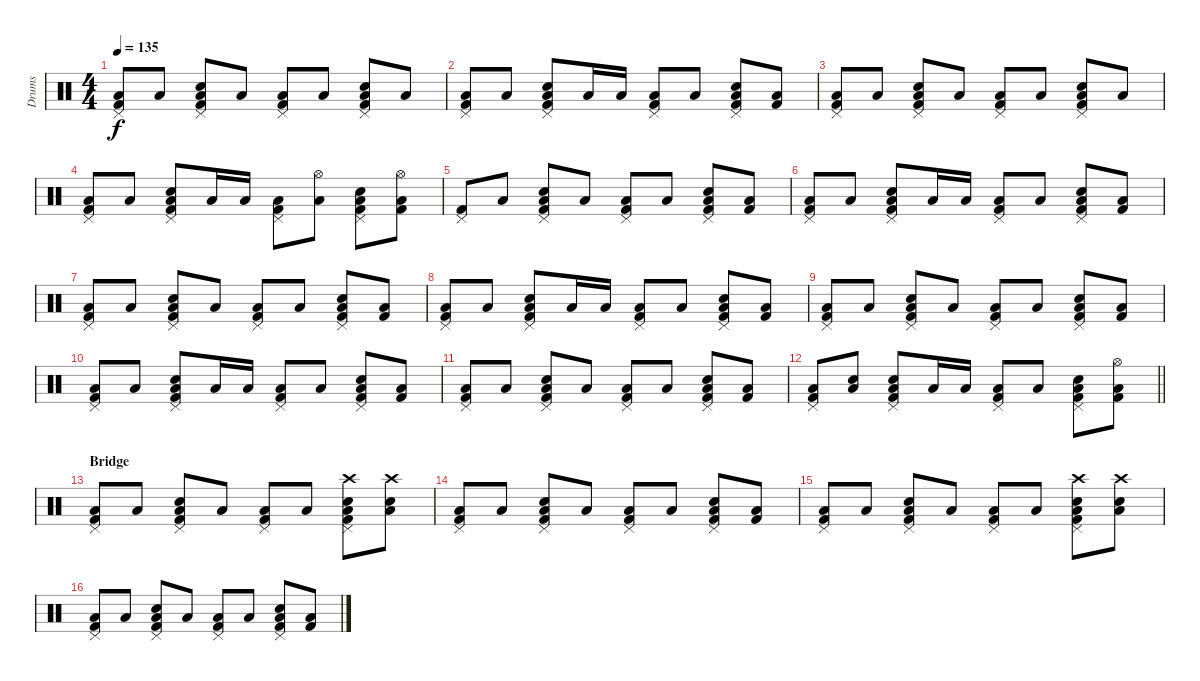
\track ("Drums" "Drums") {instrument percussion}
\staff {score}
\articulation defaults
\ts (4 4)
\tempo 135
\clef neutral
\ks c
("Pedal Hi-Hat (hit)" "Low Floor Tom (hit)" "Kick (hit) 2").8{dy f} "Low Floor Tom (hit)".8 ("Pedal Hi-Hat (hit)" "Low Floor Tom (hit)" "Electric Snare (hit)" "Kick (hit) 2").8 "Low Floor Tom (hit)".8 ("Pedal Hi-Hat (hit)" "Low Floor Tom (hit)" "Kick (hit) 2").8 "Low Floor Tom (hit)".8 ("Pedal Hi-Hat (hit)" "Low Floor Tom (hit)" "Electric Snare (hit)" "Kick (hit) 2").8 "Low Floor Tom (hit)".8 |
("Pedal Hi-Hat (hit)" "Low Floor Tom (hit)" "Kick (hit) 2").8 "Low Floor Tom (hit)".8 ("Pedal Hi-Hat (hit)" "Low Floor Tom (hit)" "Electric Snare (hit)" "Kick (hit) 2").8 "Low Floor Tom (hit)".16 "Low Floor Tom (hit)".16 ("Pedal Hi-Hat (hit)" "Low Floor Tom (hit)" "Kick (hit) 2").8 "Low Floor Tom (hit)".8 ("Pedal Hi-Hat (hit)" "Low Floor Tom (hit)" "Electric Snare (hit)" "Kick (hit) 2").8 ("Low Floor Tom (hit)" "Kick (hit) 2").8 |
("Pedal Hi-Hat (hit)" "Low Floor Tom (hit)" "Kick (hit) 2").8 "Low Floor Tom (hit)".8 ("Pedal Hi-Hat (hit)" "Low Floor Tom (hit)" "Electric Snare (hit)" "Kick (hit) 2").8 "Low Floor Tom (hit)".8 ("Pedal Hi-Hat (hit)" "Low Floor Tom (hit)" "Kick (hit) 2").8 "Low Floor Tom (hit)".8 ("Pedal Hi-Hat (hit)" "Low Floor Tom (hit)" "Electric Snare (hit)" "Kick (hit) 2").8 "Low Floor Tom (hit)".8 |
("Pedal Hi-Hat (hit)" "Low Floor Tom (hit)" "Kick (hit) 2").8 "Low Floor Tom (hit)".8 ("Pedal Hi-Hat (hit)" "Low Floor Tom (hit)" "Electric Snare (hit)" "Kick (hit) 2").8 "Low Floor Tom (hit)".16 "Low Floor Tom (hit)".16 ("Pedal Hi-Hat (hit)" "Low Floor Tom (hit)" "Kick (hit) 2").8 ("Hi-Hat (open)" "Low Floor Tom (hit)").8 ("Pedal Hi-Hat (hit)" "Low Floor Tom (hit)" "Electric Snare (hit)" "Kick (hit) 2").8 ("Hi-Hat (open)" "Low Floor Tom (hit)" "Kick (hit) 2").8 |
("Pedal Hi-Hat (hit)" "Kick (hit) 2").8 "Low Floor Tom (hit)".8 ("Pedal Hi-Hat (hit)" "Low Floor Tom (hit)" "Electric Snare (hit)" "Kick (hit) 2").8 "Low Floor Tom (hit)".8 ("Pedal Hi-Hat (hit)" "Low Floor Tom (hit)" "Kick (hit) 2").8 "Low Floor Tom (hit)".8 ("Pedal Hi-Hat (hit)" "Low Floor Tom (hit)" "Electric Snare (hit)" "Kick (hit) 2").8 ("Low Floor Tom (hit)" "Kick (hit) 2").8 |
("Pedal Hi-Hat (hit)" "Low Floor Tom (hit)" "Kick (hit) 2").8 "Low Floor Tom (hit)".8 ("Pedal Hi-Hat (hit)" "Low Floor Tom (hit)" "Electric Snare (hit)" "Kick (hit) 2").8 "Low Floor Tom (hit)".16 "Low Floor Tom (hit)".16 ("Pedal Hi-Hat (hit)" "Low Floor Tom (hit)" "Kick (hit) 2").8 "Low Floor Tom (hit)".8 ("Pedal Hi-Hat (hit)" "Low Floor Tom (hit)" "Electric Snare (hit)" "Kick (hit) 2").8 ("Low Floor Tom (hit)" "Kick (hit) 2").8 |
("Pedal Hi-Hat (hit)" "Low Floor Tom (hit)" "Kick (hit) 2").8 "Low Floor Tom (hit)".8 ("Pedal Hi-Hat (hit)" "Low Floor Tom (hit)" "Electric Snare (hit)" "Kick (hit) 2").8 "Low Floor Tom (hit)".8 ("Pedal Hi-Hat (hit)" "Low Floor Tom (hit)" "Kick (hit) 2").8 "Low Floor Tom (hit)".8 ("Pedal Hi-Hat (hit)" "Low Floor Tom (hit)" "Electric Snare (hit)" "Kick (hit) 2").8 ("Low Floor Tom (hit)" "Kick (hit) 2").8 |
("Pedal Hi-Hat (hit)" "Low Floor Tom (hit)" "Kick (hit) 2").8 "Low Floor Tom (hit)".8 ("Pedal Hi-Hat (hit)" "Low Floor Tom (hit)" "Electric Snare (hit)" "Kick (hit) 2").8 "Low Floor Tom (hit)".16 "Low Floor Tom (hit)".16 ("Pedal Hi-Hat (hit)" "Low Floor Tom (hit)" "Kick (hit) 2").8 "Low Floor Tom (hit)".8 ("Pedal Hi-Hat (hit)" "Low Floor Tom (hit)" "Electric Snare (hit)" "Kick (hit) 2").8 ("Low Floor Tom (hit)" "Kick (hit) 2").8 |
("Pedal Hi-Hat (hit)" "Low Floor Tom (hit)" "Kick (hit) 2").8 "Low Floor Tom (hit)".8 ("Pedal Hi-Hat (hit)" "Low Floor Tom (hit)" "Electric Snare (hit)" "Kick (hit) 2").8 "Low Floor Tom (hit)".8 ("Pedal Hi-Hat (hit)" "Low Floor Tom (hit)" "Kick (hit) 2").8 "Low Floor Tom (hit)".8 ("Pedal Hi-Hat (hit)" "Low Floor Tom (hit)" "Electric Snare (hit)" "Kick (hit) 2").8 ("Low Floor Tom (hit)" "Kick (hit) 2").8 |
("Pedal Hi-Hat (hit)" "Low Floor Tom (hit)" "Kick (hit) 2").8 "Low Floor Tom (hit)".8 ("Pedal Hi-Hat (hit)" "Low Floor Tom (hit)" "Electric Snare (hit)" "Kick (hit) 2").8 "Low Floor Tom (hit)".16 "Low Floor Tom (hit)".16 ("Pedal Hi-Hat (hit)" "Low Floor Tom (hit)" "Kick (hit) 2").8 "Low Floor Tom (hit)".8 ("Pedal Hi-Hat (hit)" "Low Floor Tom (hit)" "Electric Snare (hit)" "Kick (hit) 2").8 ("Low Floor Tom (hit)" "Kick (hit) 2").8 |
("Pedal Hi-Hat (hit)" "Low Floor Tom (hit)" "Kick (hit) 2").8 "Low Floor Tom (hit)".8 ("Pedal Hi-Hat (hit)" "Low Floor Tom (hit)" "Electric Snare (hit)" "Kick (hit) 2").8 "Low Floor Tom (hit)".8 ("Pedal Hi-Hat (hit)" "Low Floor Tom (hit)" "Kick (hit) 2").8 "Low Floor Tom (hit)".8 ("Pedal Hi-Hat (hit)" "Low Floor Tom (hit)" "Electric Snare (hit)" "Kick (hit) 2").8 ("Low Floor Tom (hit)" "Kick (hit) 2").8 |
\barLineRight lightlight
("Pedal Hi-Hat (hit)" "Low Floor Tom (hit)" "Kick (hit) 2").8 ("Low Floor Tom (hit)" "Electric Snare (hit)").8 ("Pedal Hi-Hat (hit)" "Low Floor Tom (hit)" "Electric Snare (hit)" "Kick (hit) 2").8 "Low Floor Tom (hit)".16 "Low Floor Tom (hit)".16 ("Pedal Hi-Hat (hit)" "Low Floor Tom (hit)" "Kick (hit) 2").8 "Low Floor Tom (hit)".8 ("Pedal Hi-Hat (hit)" "Low Floor Tom (hit)" "Electric Snare (hit)" "Kick (hit) 2").8 ("Hi-Hat (open)" "Low Floor Tom (hit)" "Kick (hit) 2").8 |
\section ("" "Bridge")
("Pedal Hi-Hat (hit)" "Low Floor Tom (hit)" "Kick (hit) 2").8 "Low Floor Tom (hit)".8 ("Pedal Hi-Hat (hit)" "Low Floor Tom (hit)" "Electric Snare (hit)" "Kick (hit) 2").8 "Low Floor Tom (hit)".8 ("Pedal Hi-Hat (hit)" "Low Floor Tom (hit)" "Kick (hit) 2").8 "Low Floor Tom (hit)".8 ("Pedal Hi-Hat (hit)" "Low Floor Tom (hit)" "Crash high (hit)" "Electric Snare (hit)" "Kick (hit) 2").8 ("Low Floor Tom (hit)" "Crash high (hit)" "Electric Snare (hit)").8 |
("Pedal Hi-Hat (hit)" "Low Floor Tom (hit)" "Kick (hit) 2").8 "Low Floor Tom (hit)".8 ("Pedal Hi-Hat (hit)" "Low Floor Tom (hit)" "Electric Snare (hit)" "Kick (hit) 2").8 "Low Floor Tom (hit)".8 ("Pedal Hi-Hat (hit)" "Low Floor Tom (hit)" "Kick (hit) 2").8 "Low Floor Tom (hit)".8 ("Pedal Hi-Hat (hit)" "Low Floor Tom (hit)" "Electric Snare (hit)" "Kick (hit) 2").8 ("Low Floor Tom (hit)" "Kick (hit) 2").8 |
("Pedal Hi-Hat (hit)" "Low Floor Tom (hit)" "Kick (hit) 2").8 "Low Floor Tom (hit)".8 ("Pedal Hi-Hat (hit)" "Low Floor Tom (hit)" "Electric Snare (hit)" "Kick (hit) 2").8 "Low Floor Tom (hit)".8 ("Pedal Hi-Hat (hit)" "Low Floor Tom (hit)" "Kick (hit) 2").8 "Low Floor Tom (hit)".8 ("Pedal Hi-Hat (hit)" "Low Floor Tom (hit)" "Crash high (hit)" "Electric Snare (hit)" "Kick (hit) 2").8 ("Low Floor Tom (hit)" "Crash high (hit)" "Electric Snare (hit)").8 |
("Pedal Hi-Hat (hit)" "Low Floor Tom (hit)" "Kick (hit) 2").8 "Low Floor Tom (hit)".8 ("Pedal Hi-Hat (hit)" "Low Floor Tom (hit)" "Electric Snare (hit)" "Kick (hit) 2").8 "Low Floor Tom (hit)".8 ("Pedal Hi-Hat (hit)" "Low Floor Tom (hit)" "Kick (hit) 2").8 "Low Floor Tom (hit)".8 ("Pedal Hi-Hat (hit)" "Low Floor Tom (hit)" "Electric Snare (hit)" "Kick (hit) 2").8 ("Low Floor Tom (hit)" "Kick (hit) 2").8
